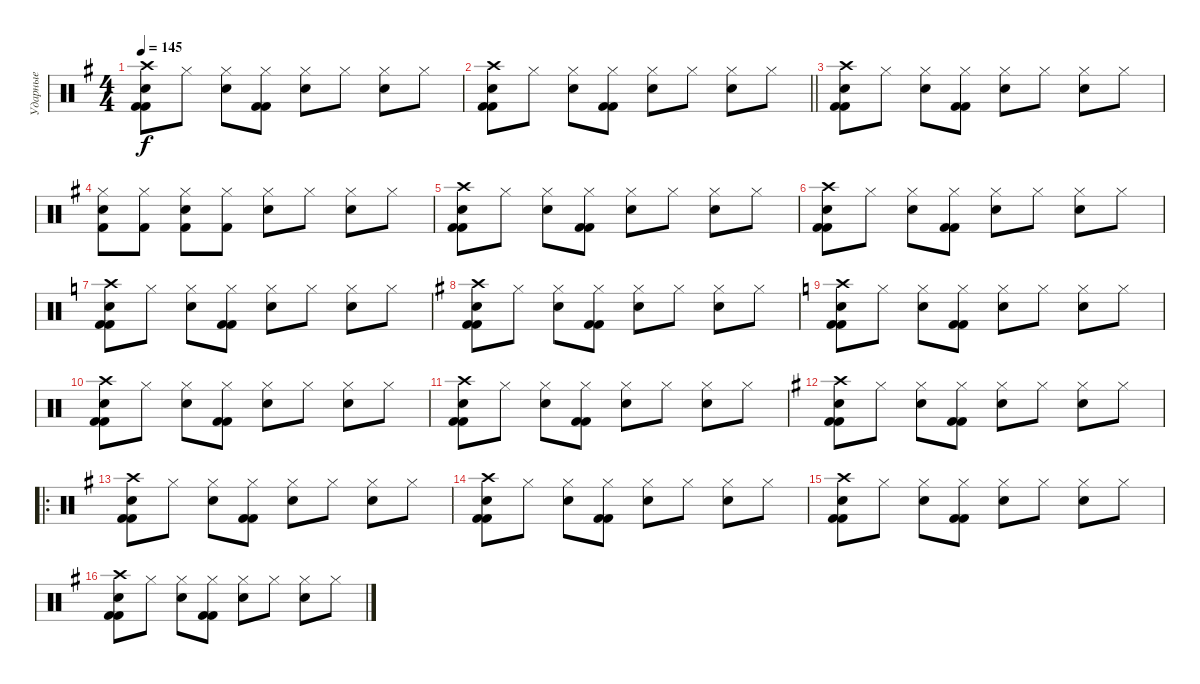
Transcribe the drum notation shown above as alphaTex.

\track ("Ударные" "Ударные") {instrument percussion}
\staff {score}
\articulation defaults
\ts (4 4)
\tempo 145
\clef neutral
\ks g
("Electric Snare (hit)" "Crash high (hit)" "Kick (hit) 2" "Kick (hit) 2").8{dy f} "Hi-Hat (closed)".8 ("Electric Snare (hit)" "Hi-Hat (closed)").8 ("Hi-Hat (closed)" "Kick (hit) 2" "Kick (hit) 2").8 ("Electric Snare (hit)" "Hi-Hat (closed)").8 "Hi-Hat (closed)".8 ("Electric Snare (hit)" "Hi-Hat (closed)").8 "Hi-Hat (closed)".8 |
\barLineRight lightlight
("Electric Snare (hit)" "Crash high (hit)" "Kick (hit) 2" "Kick (hit) 2").8 "Hi-Hat (closed)".8 ("Electric Snare (hit)" "Hi-Hat (closed)").8 ("Hi-Hat (closed)" "Kick (hit) 2" "Kick (hit) 2").8 ("Electric Snare (hit)" "Hi-Hat (closed)").8 "Hi-Hat (closed)".8 ("Electric Snare (hit)" "Hi-Hat (closed)").8 "Hi-Hat (closed)".8 |
("Electric Snare (hit)" "Crash high (hit)" "Kick (hit) 2" "Kick (hit) 2").8 "Hi-Hat (closed)".8 ("Electric Snare (hit)" "Hi-Hat (closed)").8 ("Hi-Hat (closed)" "Kick (hit) 2" "Kick (hit) 2").8 ("Electric Snare (hit)" "Hi-Hat (closed)").8 "Hi-Hat (closed)".8 ("Electric Snare (hit)" "Hi-Hat (closed)").8 "Hi-Hat (closed)".8 |
("Electric Snare (hit)" "Hi-Hat (closed)" "Kick (hit) 2").8 ("Hi-Hat (closed)" "Kick (hit) 2").8 ("Electric Snare (hit)" "Hi-Hat (closed)" "Kick (hit) 2").8 ("Hi-Hat (closed)" "Kick (hit) 2").8 ("Electric Snare (hit)" "Hi-Hat (closed)").8 "Hi-Hat (closed)".8 ("Electric Snare (hit)" "Hi-Hat (closed)").8 "Hi-Hat (closed)".8 |
("Electric Snare (hit)" "Crash high (hit)" "Kick (hit) 2" "Kick (hit) 2").8 "Hi-Hat (closed)".8 ("Electric Snare (hit)" "Hi-Hat (closed)").8 ("Hi-Hat (closed)" "Kick (hit) 2" "Kick (hit) 2").8 ("Electric Snare (hit)" "Hi-Hat (closed)").8 "Hi-Hat (closed)".8 ("Electric Snare (hit)" "Hi-Hat (closed)").8 "Hi-Hat (closed)".8 |
("Electric Snare (hit)" "Crash high (hit)" "Kick (hit) 2" "Kick (hit) 2").8 "Hi-Hat (closed)".8 ("Electric Snare (hit)" "Hi-Hat (closed)").8 ("Hi-Hat (closed)" "Kick (hit) 2" "Kick (hit) 2").8 ("Electric Snare (hit)" "Hi-Hat (closed)").8 "Hi-Hat (closed)".8 ("Electric Snare (hit)" "Hi-Hat (closed)").8 "Hi-Hat (closed)".8 |
\ks c
("Electric Snare (hit)" "Crash high (hit)" "Kick (hit) 2" "Kick (hit) 2").8 "Hi-Hat (closed)".8 ("Electric Snare (hit)" "Hi-Hat (closed)").8 ("Hi-Hat (closed)" "Kick (hit) 2" "Kick (hit) 2").8 ("Electric Snare (hit)" "Hi-Hat (closed)").8 "Hi-Hat (closed)".8 ("Electric Snare (hit)" "Hi-Hat (closed)").8 "Hi-Hat (closed)".8 |
\ks g
("Electric Snare (hit)" "Crash high (hit)" "Kick (hit) 2" "Kick (hit) 2").8 "Hi-Hat (closed)".8 ("Electric Snare (hit)" "Hi-Hat (closed)").8 ("Hi-Hat (closed)" "Kick (hit) 2" "Kick (hit) 2").8 ("Electric Snare (hit)" "Hi-Hat (closed)").8 "Hi-Hat (closed)".8 ("Electric Snare (hit)" "Hi-Hat (closed)").8 "Hi-Hat (closed)".8 |
\ks c
("Electric Snare (hit)" "Crash high (hit)" "Kick (hit) 2" "Kick (hit) 2").8 "Hi-Hat (closed)".8 ("Electric Snare (hit)" "Hi-Hat (closed)").8 ("Hi-Hat (closed)" "Kick (hit) 2" "Kick (hit) 2").8 ("Electric Snare (hit)" "Hi-Hat (closed)").8 "Hi-Hat (closed)".8 ("Electric Snare (hit)" "Hi-Hat (closed)").8 "Hi-Hat (closed)".8 |
("Electric Snare (hit)" "Crash high (hit)" "Kick (hit) 2" "Kick (hit) 2").8 "Hi-Hat (closed)".8 ("Electric Snare (hit)" "Hi-Hat (closed)").8 ("Hi-Hat (closed)" "Kick (hit) 2" "Kick (hit) 2").8 ("Electric Snare (hit)" "Hi-Hat (closed)").8 "Hi-Hat (closed)".8 ("Electric Snare (hit)" "Hi-Hat (closed)").8 "Hi-Hat (closed)".8 |
("Electric Snare (hit)" "Crash high (hit)" "Kick (hit) 2" "Kick (hit) 2").8 "Hi-Hat (closed)".8 ("Electric Snare (hit)" "Hi-Hat (closed)").8 ("Hi-Hat (closed)" "Kick (hit) 2" "Kick (hit) 2").8 ("Electric Snare (hit)" "Hi-Hat (closed)").8 "Hi-Hat (closed)".8 ("Electric Snare (hit)" "Hi-Hat (closed)").8 "Hi-Hat (closed)".8 |
\ks g
("Electric Snare (hit)" "Crash high (hit)" "Kick (hit) 2" "Kick (hit) 2").8 "Hi-Hat (closed)".8 ("Electric Snare (hit)" "Hi-Hat (closed)").8 ("Hi-Hat (closed)" "Kick (hit) 2" "Kick (hit) 2").8 ("Electric Snare (hit)" "Hi-Hat (closed)").8 "Hi-Hat (closed)".8 ("Electric Snare (hit)" "Hi-Hat (closed)").8 "Hi-Hat (closed)".8 |
\ro
("Electric Snare (hit)" "Crash high (hit)" "Kick (hit) 2" "Kick (hit) 2").8 "Hi-Hat (closed)".8 ("Electric Snare (hit)" "Hi-Hat (closed)").8 ("Hi-Hat (closed)" "Kick (hit) 2" "Kick (hit) 2").8 ("Electric Snare (hit)" "Hi-Hat (closed)").8 "Hi-Hat (closed)".8 ("Electric Snare (hit)" "Hi-Hat (closed)").8 "Hi-Hat (closed)".8 |
("Electric Snare (hit)" "Crash high (hit)" "Kick (hit) 2" "Kick (hit) 2").8 "Hi-Hat (closed)".8 ("Electric Snare (hit)" "Hi-Hat (closed)").8 ("Hi-Hat (closed)" "Kick (hit) 2" "Kick (hit) 2").8 ("Electric Snare (hit)" "Hi-Hat (closed)").8 "Hi-Hat (closed)".8 ("Electric Snare (hit)" "Hi-Hat (closed)").8 "Hi-Hat (closed)".8 |
("Electric Snare (hit)" "Crash high (hit)" "Kick (hit) 2" "Kick (hit) 2").8 "Hi-Hat (closed)".8 ("Electric Snare (hit)" "Hi-Hat (closed)").8 ("Hi-Hat (closed)" "Kick (hit) 2" "Kick (hit) 2").8 ("Electric Snare (hit)" "Hi-Hat (closed)").8 "Hi-Hat (closed)".8 ("Electric Snare (hit)" "Hi-Hat (closed)").8 "Hi-Hat (closed)".8 |
("Electric Snare (hit)" "Crash high (hit)" "Kick (hit) 2" "Kick (hit) 2").8 "Hi-Hat (closed)".8 ("Electric Snare (hit)" "Hi-Hat (closed)").8 ("Hi-Hat (closed)" "Kick (hit) 2" "Kick (hit) 2").8 ("Electric Snare (hit)" "Hi-Hat (closed)").8 "Hi-Hat (closed)".8 ("Electric Snare (hit)" "Hi-Hat (closed)").8 "Hi-Hat (closed)".8
